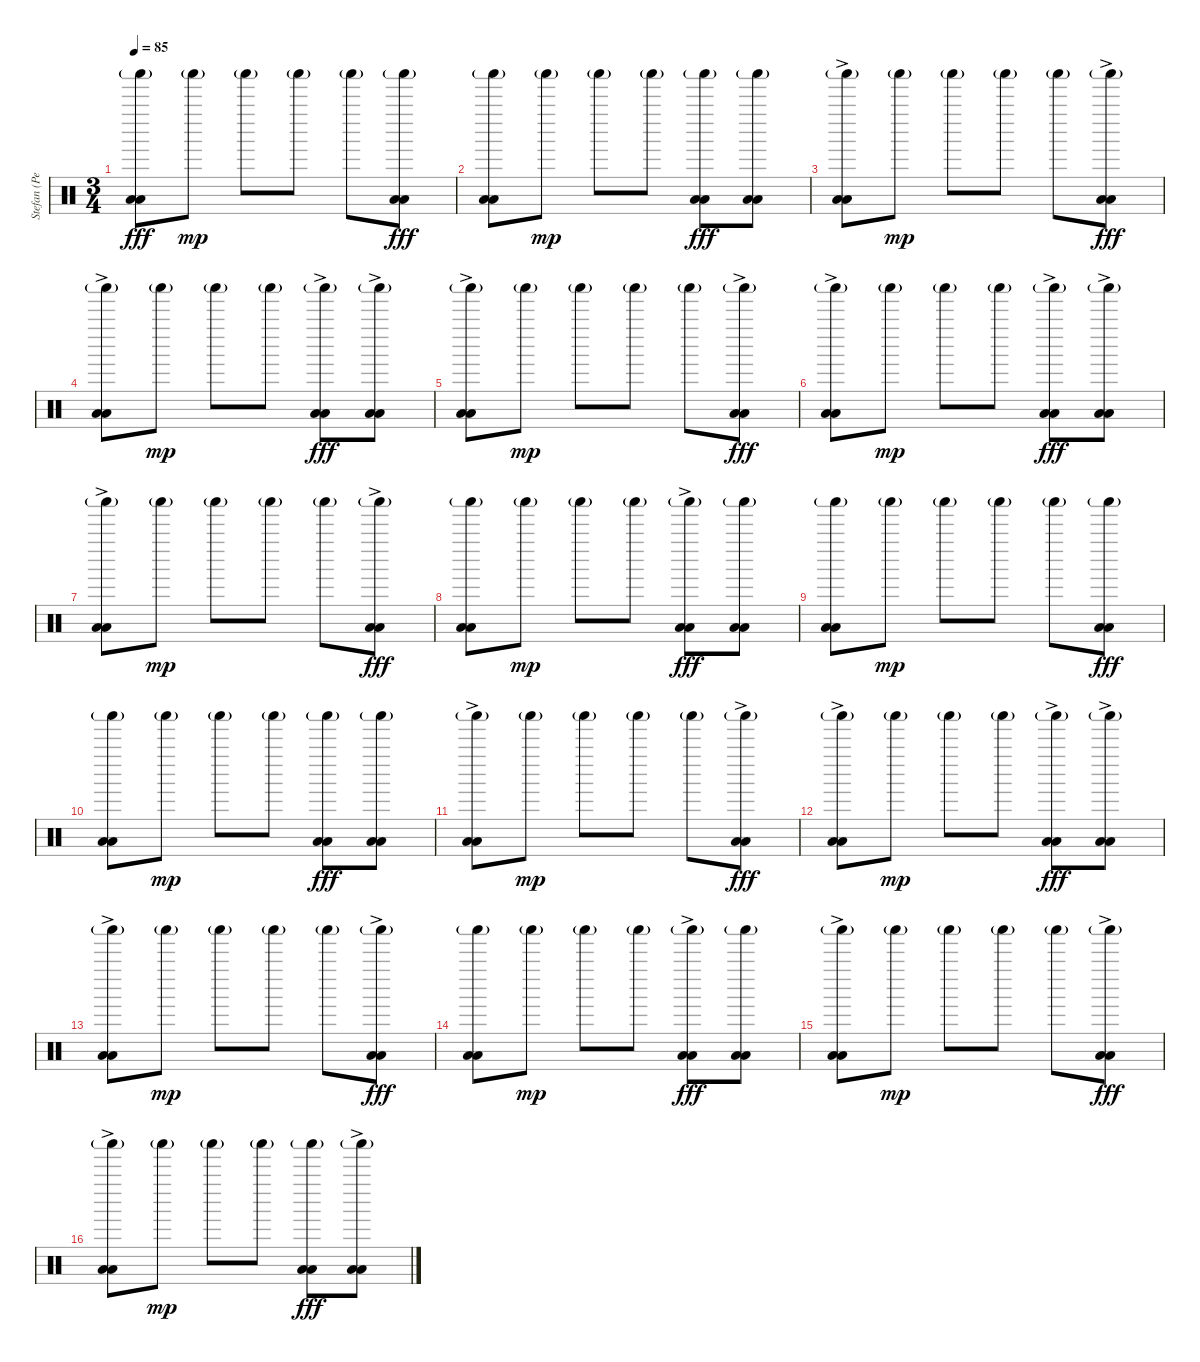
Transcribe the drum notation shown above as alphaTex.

\track ("Stefan (Percussion)" "Stefan (Pe") {instrument percussion}
\staff {score}
\articulation defaults
\ts (3 4)
\tempo 85
\clef neutral
\ks c
("Shaker (hit)"{g} "Low Floor Tom (hit)" "Low Floor Tom (hit)").8{dy fff} "Shaker (hit)"{g}.8{dy mp} "Shaker (hit)"{g}.8 "Shaker (hit)"{g}.8 "Shaker (hit)"{g}.8 ("Shaker (hit)"{g} "Low Floor Tom (hit)" "Low Floor Tom (hit)").8{dy fff} |
("Shaker (hit)"{g} "Low Floor Tom (hit)" "Low Floor Tom (hit)").8 "Shaker (hit)"{g}.8{dy mp} "Shaker (hit)"{g}.8 "Shaker (hit)"{g}.8 ("Shaker (hit)"{g} "Low Floor Tom (hit)" "Low Floor Tom (hit)").8{dy fff} ("Shaker (hit)"{g} "Low Floor Tom (hit)" "Low Floor Tom (hit)").8 |
("Shaker (hit)"{g} "Low Floor Tom (hit)"{ac} "Low Floor Tom (hit)"{ac}).8 "Shaker (hit)"{g}.8{dy mp} "Shaker (hit)"{g}.8 "Shaker (hit)"{g}.8 "Shaker (hit)"{g}.8 ("Shaker (hit)"{g} "Low Floor Tom (hit)"{ac} "Low Floor Tom (hit)"{ac}).8{dy fff} |
("Shaker (hit)"{g} "Low Floor Tom (hit)"{ac} "Low Floor Tom (hit)"{ac}).8 "Shaker (hit)"{g}.8{dy mp} "Shaker (hit)"{g}.8 "Shaker (hit)"{g}.8 ("Shaker (hit)"{g} "Low Floor Tom (hit)"{ac} "Low Floor Tom (hit)"{ac}).8{dy fff} ("Shaker (hit)"{g} "Low Floor Tom (hit)"{ac} "Low Floor Tom (hit)"{ac}).8 |
("Shaker (hit)"{g} "Low Floor Tom (hit)"{ac} "Low Floor Tom (hit)"{ac}).8 "Shaker (hit)"{g}.8{dy mp} "Shaker (hit)"{g}.8 "Shaker (hit)"{g}.8 "Shaker (hit)"{g}.8 ("Shaker (hit)"{g} "Low Floor Tom (hit)"{ac} "Low Floor Tom (hit)"{ac}).8{dy fff} |
("Shaker (hit)"{g} "Low Floor Tom (hit)"{ac} "Low Floor Tom (hit)"{ac}).8 "Shaker (hit)"{g}.8{dy mp} "Shaker (hit)"{g}.8 "Shaker (hit)"{g}.8 ("Shaker (hit)"{g} "Low Floor Tom (hit)"{ac} "Low Floor Tom (hit)"{ac}).8{dy fff} ("Shaker (hit)"{g} "Low Floor Tom (hit)"{ac} "Low Floor Tom (hit)"{ac}).8 |
("Shaker (hit)"{g} "Low Floor Tom (hit)"{ac} "Low Floor Tom (hit)"{ac}).8 "Shaker (hit)"{g}.8{dy mp} "Shaker (hit)"{g}.8 "Shaker (hit)"{g}.8 "Shaker (hit)"{g}.8 ("Shaker (hit)"{g} "Low Floor Tom (hit)"{ac} "Low Floor Tom (hit)"{ac}).8{dy fff} |
("Shaker (hit)"{g} "Low Floor Tom (hit)" "Low Floor Tom (hit)").8 "Shaker (hit)"{g}.8{dy mp} "Shaker (hit)"{g}.8 "Shaker (hit)"{g}.8 ("Shaker (hit)"{g} "Low Floor Tom (hit)"{ac} "Low Floor Tom (hit)"{ac}).8{dy fff} ("Shaker (hit)"{g} "Low Floor Tom (hit)" "Low Floor Tom (hit)").8 |
("Shaker (hit)"{g} "Low Floor Tom (hit)" "Low Floor Tom (hit)").8 "Shaker (hit)"{g}.8{dy mp} "Shaker (hit)"{g}.8 "Shaker (hit)"{g}.8 "Shaker (hit)"{g}.8 ("Shaker (hit)"{g} "Low Floor Tom (hit)" "Low Floor Tom (hit)").8{dy fff} |
("Shaker (hit)"{g} "Low Floor Tom (hit)" "Low Floor Tom (hit)").8 "Shaker (hit)"{g}.8{dy mp} "Shaker (hit)"{g}.8 "Shaker (hit)"{g}.8 ("Shaker (hit)"{g} "Low Floor Tom (hit)" "Low Floor Tom (hit)").8{dy fff} ("Shaker (hit)"{g} "Low Floor Tom (hit)" "Low Floor Tom (hit)").8 |
("Shaker (hit)"{g} "Low Floor Tom (hit)"{ac} "Low Floor Tom (hit)"{ac}).8 "Shaker (hit)"{g}.8{dy mp} "Shaker (hit)"{g}.8 "Shaker (hit)"{g}.8 "Shaker (hit)"{g}.8 ("Shaker (hit)"{g} "Low Floor Tom (hit)"{ac} "Low Floor Tom (hit)"{ac}).8{dy fff} |
("Shaker (hit)"{g} "Low Floor Tom (hit)"{ac} "Low Floor Tom (hit)"{ac}).8 "Shaker (hit)"{g}.8{dy mp} "Shaker (hit)"{g}.8 "Shaker (hit)"{g}.8 ("Shaker (hit)"{g} "Low Floor Tom (hit)"{ac} "Low Floor Tom (hit)"{ac}).8{dy fff} ("Shaker (hit)"{g} "Low Floor Tom (hit)"{ac} "Low Floor Tom (hit)"{ac}).8 |
("Shaker (hit)"{g} "Low Floor Tom (hit)"{ac} "Low Floor Tom (hit)"{ac}).8 "Shaker (hit)"{g}.8{dy mp} "Shaker (hit)"{g}.8 "Shaker (hit)"{g}.8 "Shaker (hit)"{g}.8 ("Shaker (hit)"{g} "Low Floor Tom (hit)"{ac} "Low Floor Tom (hit)"{ac}).8{dy fff} |
("Shaker (hit)"{g} "Low Floor Tom (hit)" "Low Floor Tom (hit)").8 "Shaker (hit)"{g}.8{dy mp} "Shaker (hit)"{g}.8 "Shaker (hit)"{g}.8 ("Shaker (hit)"{g} "Low Floor Tom (hit)"{ac} "Low Floor Tom (hit)"{ac}).8{dy fff} ("Shaker (hit)"{g} "Low Floor Tom (hit)" "Low Floor Tom (hit)").8 |
("Shaker (hit)"{g} "Low Floor Tom (hit)"{ac} "Low Floor Tom (hit)"{ac}).8 "Shaker (hit)"{g}.8{dy mp} "Shaker (hit)"{g}.8 "Shaker (hit)"{g}.8 "Shaker (hit)"{g}.8 ("Shaker (hit)"{g} "Low Floor Tom (hit)"{ac} "Low Floor Tom (hit)"{ac}).8{dy fff} |
("Shaker (hit)"{g} "Low Floor Tom (hit)"{ac} "Low Floor Tom (hit)"{ac}).8 "Shaker (hit)"{g}.8{dy mp} "Shaker (hit)"{g}.8 "Shaker (hit)"{g}.8 ("Shaker (hit)"{g} "Low Floor Tom (hit)" "Low Floor Tom (hit)").8{dy fff} ("Shaker (hit)"{g} "Low Floor Tom (hit)"{ac} "Low Floor Tom (hit)"{ac}).8
